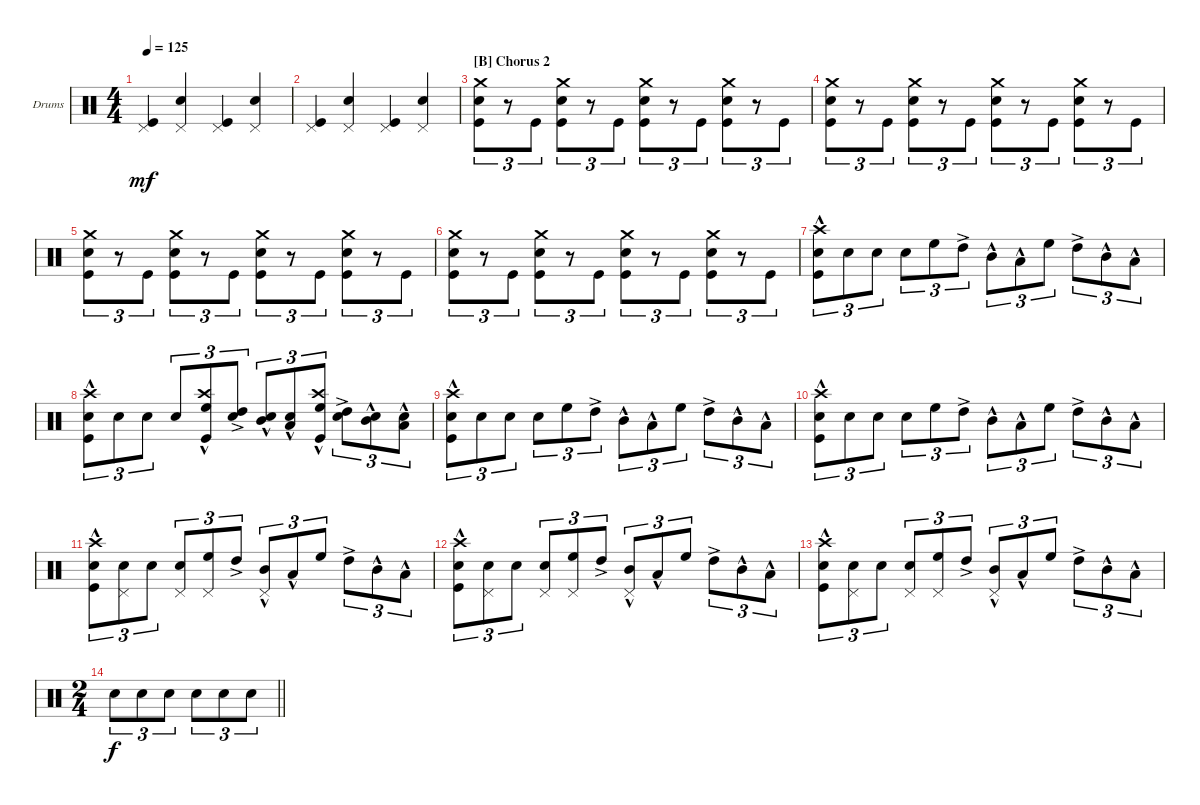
\defaultSystemsLayout 4
\bracketExtendMode groupsimilarinstruments
\firstSystemTrackNameOrientation horizontal
\otherSystemsTrackNameOrientation horizontal
\track ("Drumkit" "Drums") {instrument percussion}
\staff {score}
\articulation defaults
\ts (4 4)
\tempo 125
\clef neutral
\ks c
("Kick (hit)" "Pedal Hi-Hat (hit)").4{dy mf} ("Snare (hit) 2" "Pedal Hi-Hat (hit)").4 ("Kick (hit)" "Pedal Hi-Hat (hit)").4 ("Snare (hit) 2" "Pedal Hi-Hat (hit)").4 |
("Kick (hit)" "Pedal Hi-Hat (hit)").4 ("Snare (hit) 2" "Pedal Hi-Hat (hit)").4 ("Kick (hit)" "Pedal Hi-Hat (hit)").4 ("Snare (hit) 2" "Pedal Hi-Hat (hit)").4 |
\section ("B" "Chorus 2")
("Kick (hit)" "Crash medium (hit)" "Snare (hit) 2").8{tu (3 2)} r.8{tu (3 2)} "Kick (hit)".8{tu (3 2)} ("Kick (hit)" "Snare (hit) 2" "Crash medium (hit)").8{tu (3 2)} r.8{tu (3 2)} "Kick (hit)".8{tu (3 2)} ("Kick (hit)" "Snare (hit) 2" "Crash medium (hit)").8{tu (3 2)} r.8{tu (3 2)} "Kick (hit)".8{tu (3 2)} ("Kick (hit)" "Crash medium (hit)" "Snare (hit) 2").8{tu (3 2)} r.8{tu (3 2)} "Kick (hit)".8{tu (3 2)} |
("Kick (hit)" "Crash medium (hit)" "Snare (hit) 2").8{tu (3 2)} r.8{tu (3 2)} "Kick (hit)".8{tu (3 2)} ("Kick (hit)" "Snare (hit) 2" "Crash medium (hit)").8{tu (3 2)} r.8{tu (3 2)} "Kick (hit)".8{tu (3 2)} ("Kick (hit)" "Snare (hit) 2" "Crash medium (hit)").8{tu (3 2)} r.8{tu (3 2)} "Kick (hit)".8{tu (3 2)} ("Kick (hit)" "Crash medium (hit)" "Snare (hit) 2").8{tu (3 2)} r.8{tu (3 2)} "Kick (hit)".8{tu (3 2)} |
("Kick (hit)" "Crash medium (hit)" "Snare (hit) 2").8{tu (3 2)} r.8{tu (3 2)} "Kick (hit)".8{tu (3 2)} ("Kick (hit)" "Snare (hit) 2" "Crash medium (hit)").8{tu (3 2)} r.8{tu (3 2)} "Kick (hit)".8{tu (3 2)} ("Kick (hit)" "Snare (hit) 2" "Crash medium (hit)").8{tu (3 2)} r.8{tu (3 2)} "Kick (hit)".8{tu (3 2)} ("Kick (hit)" "Crash medium (hit)" "Snare (hit) 2").8{tu (3 2)} r.8{tu (3 2)} "Kick (hit)".8{tu (3 2)} |
("Kick (hit)" "Crash medium (hit)" "Snare (hit) 2").8{tu (3 2)} r.8{tu (3 2)} "Kick (hit)".8{tu (3 2)} ("Kick (hit)" "Snare (hit) 2" "Crash medium (hit)").8{tu (3 2)} r.8{tu (3 2)} "Kick (hit)".8{tu (3 2)} ("Kick (hit)" "Snare (hit) 2" "Crash medium (hit)").8{tu (3 2)} r.8{tu (3 2)} "Kick (hit)".8{tu (3 2)} ("Kick (hit)" "Crash medium (hit)" "Snare (hit) 2").8{tu (3 2)} r.8{tu (3 2)} "Kick (hit)".8{tu (3 2)} |
("Kick (hit)"{hac} "Snare (hit) 2" "Crash high (hit)").8{tu (3 2)} "Snare (hit) 2".8{tu (3 2)} "Snare (hit) 2".8{tu (3 2)} "Snare (hit) 2".8{tu (3 2)} "High Floor Tom (hit)".8{tu (3 2)} "High Tom (hit)"{ac}.8{tu (3 2)} "Mid Tom (hit)"{hac}.8{tu (3 2)} "Low Tom (hit)"{hac}.8{tu (3 2)} "High Floor Tom (hit)".8{tu (3 2)} "High Tom (hit)"{ac}.8{tu (3 2)} "Mid Tom (hit)"{hac}.8{tu (3 2)} "Low Tom (hit)"{hac}.8{tu (3 2)} |
("Kick (hit)"{hac} "Snare (hit) 2" "Crash high (hit)").8{tu (3 2)} "Snare (hit) 2".8{tu (3 2)} "Snare (hit) 2".8{tu (3 2)} "Snare (hit) 2".8{tu (3 2)} ("High Floor Tom (hit)" "Kick (hit)"{hac} "Crash high (hit)").8{tu (3 2)} ("High Tom (hit)"{ac} "Snare (hit) 2").8{tu (3 2)} ("Mid Tom (hit)"{hac} "Snare (hit) 2").8{tu (3 2)} ("Low Tom (hit)"{hac} "Snare (hit) 2").8{tu (3 2)} ("High Floor Tom (hit)" "Kick (hit)"{hac} "Crash high (hit)").8{tu (3 2)} ("High Tom (hit)"{ac} "Snare (hit) 2").8{tu (3 2)} ("Mid Tom (hit)"{hac} "Snare (hit) 2").8{tu (3 2)} ("Low Tom (hit)"{hac} "Snare (hit) 2").8{tu (3 2)} |
("Kick (hit)"{hac} "Snare (hit) 2" "Crash high (hit)").8{tu (3 2)} "Snare (hit) 2".8{tu (3 2)} "Snare (hit) 2".8{tu (3 2)} "Snare (hit) 2".8{tu (3 2)} "High Floor Tom (hit)".8{tu (3 2)} "High Tom (hit)"{ac}.8{tu (3 2)} "Mid Tom (hit)"{hac}.8{tu (3 2)} "Low Tom (hit)"{hac}.8{tu (3 2)} "High Floor Tom (hit)".8{tu (3 2)} "High Tom (hit)"{ac}.8{tu (3 2)} "Mid Tom (hit)"{hac}.8{tu (3 2)} "Low Tom (hit)"{hac}.8{tu (3 2)} |
("Kick (hit)"{hac} "Snare (hit) 2" "Crash high (hit)").8{tu (3 2)} "Snare (hit) 2".8{tu (3 2)} "Snare (hit) 2".8{tu (3 2)} "Snare (hit) 2".8{tu (3 2)} "High Floor Tom (hit)".8{tu (3 2)} "High Tom (hit)"{ac}.8{tu (3 2)} "Mid Tom (hit)"{hac}.8{tu (3 2)} "Low Tom (hit)"{hac}.8{tu (3 2)} "High Floor Tom (hit)".8{tu (3 2)} "High Tom (hit)"{ac}.8{tu (3 2)} "Mid Tom (hit)"{hac}.8{tu (3 2)} "Low Tom (hit)"{hac}.8{tu (3 2)} |
("Kick (hit)"{hac} "Snare (hit) 2" "Crash high (hit)").8{tu (3 2)} ("Snare (hit) 2" "Pedal Hi-Hat (hit)").8{tu (3 2)} "Snare (hit) 2".8{tu (3 2)} ("Snare (hit) 2" "Pedal Hi-Hat (hit)").8{tu (3 2)} ("High Floor Tom (hit)" "Pedal Hi-Hat (hit)").8{tu (3 2)} "High Tom (hit)"{ac}.8{tu (3 2)} ("Mid Tom (hit)"{hac} "Pedal Hi-Hat (hit)").8{tu (3 2)} "Low Tom (hit)"{hac}.8{tu (3 2)} "High Floor Tom (hit)".8{tu (3 2)} "High Tom (hit)"{ac}.8{tu (3 2)} "Mid Tom (hit)"{hac}.8{tu (3 2)} "Low Tom (hit)"{hac}.8{tu (3 2)} |
("Kick (hit)"{hac} "Snare (hit) 2" "Crash high (hit)").8{tu (3 2)} ("Snare (hit) 2" "Pedal Hi-Hat (hit)").8{tu (3 2)} "Snare (hit) 2".8{tu (3 2)} ("Snare (hit) 2" "Pedal Hi-Hat (hit)").8{tu (3 2)} ("High Floor Tom (hit)" "Pedal Hi-Hat (hit)").8{tu (3 2)} "High Tom (hit)"{ac}.8{tu (3 2)} ("Mid Tom (hit)"{hac} "Pedal Hi-Hat (hit)").8{tu (3 2)} "Low Tom (hit)"{hac}.8{tu (3 2)} "High Floor Tom (hit)".8{tu (3 2)} "High Tom (hit)"{ac}.8{tu (3 2)} "Mid Tom (hit)"{hac}.8{tu (3 2)} "Low Tom (hit)"{hac}.8{tu (3 2)} |
("Kick (hit)"{hac} "Snare (hit) 2" "Crash high (hit)").8{tu (3 2)} ("Snare (hit) 2" "Pedal Hi-Hat (hit)").8{tu (3 2)} "Snare (hit) 2".8{tu (3 2)} ("Snare (hit) 2" "Pedal Hi-Hat (hit)").8{tu (3 2)} ("High Floor Tom (hit)" "Pedal Hi-Hat (hit)").8{tu (3 2)} "High Tom (hit)"{ac}.8{tu (3 2)} ("Mid Tom (hit)"{hac} "Pedal Hi-Hat (hit)").8{tu (3 2)} "Low Tom (hit)"{hac}.8{tu (3 2)} "High Floor Tom (hit)".8{tu (3 2)} "High Tom (hit)"{ac}.8{tu (3 2)} "Mid Tom (hit)"{hac}.8{tu (3 2)} "Low Tom (hit)"{hac}.8{tu (3 2)} |
\ts (2 4)
\barLineRight lightlight "Snare (hit) 2".8{tu (3 2) dy f} "Snare (hit) 2".8{tu (3 2)} "Snare (hit) 2".8{tu (3 2)} "Snare (hit) 2".8{tu (3 2)} "Snare (hit) 2".8{tu (3 2)} "Snare (hit) 2".8{tu (3 2)}
